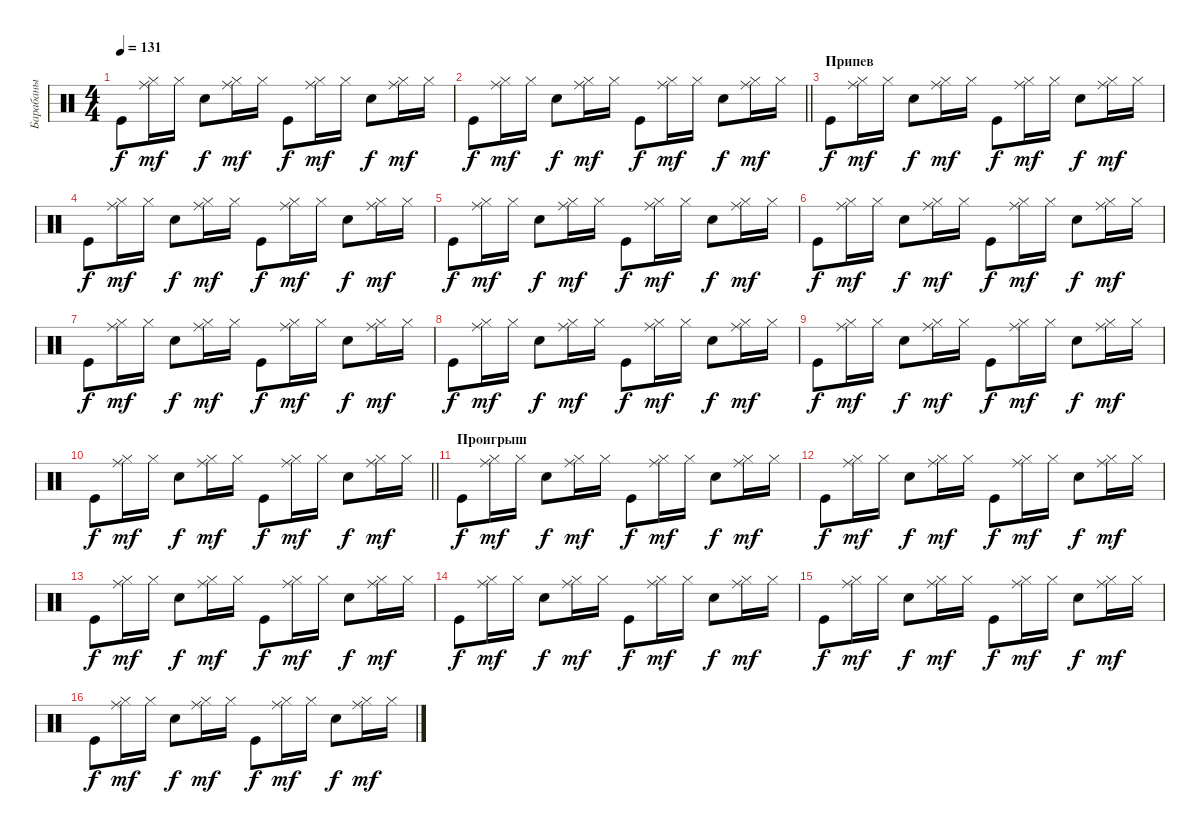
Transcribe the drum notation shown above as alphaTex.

\track ("Барабаны" "Барабаны") {instrument percussion}
\staff {score}
\articulation defaults
\ts (4 4)
\tempo 131
\clef neutral
\ks c "Kick (hit)".8{dy f}
("Hi-Hat (closed)" "Ride (middle)").16{dy mf} "Hi-Hat (closed)".16 "Snare (hit) 2".8{dy f} ("Hi-Hat (closed)" "Ride (middle)").16{dy mf} "Hi-Hat (closed)".16 "Kick (hit)".8{dy f} ("Hi-Hat (closed)" "Ride (middle)").16{dy mf} "Hi-Hat (closed)".16 "Snare (hit) 2".8{dy f} ("Hi-Hat (closed)" "Ride (middle)").16{dy mf} "Hi-Hat (closed)".16 |
\barLineRight lightlight "Kick (hit)".8{dy f}
("Hi-Hat (closed)" "Ride (middle)").16{dy mf} "Hi-Hat (closed)".16 "Snare (hit) 2".8{dy f} ("Hi-Hat (closed)" "Ride (middle)").16{dy mf} "Hi-Hat (closed)".16 "Kick (hit)".8{dy f} ("Hi-Hat (closed)" "Ride (middle)").16{dy mf} "Hi-Hat (closed)".16 "Snare (hit) 2".8{dy f} ("Hi-Hat (closed)" "Ride (middle)").16{dy mf} "Hi-Hat (closed)".16 |
\section ("" "Припев")
"Kick (hit)".8{dy f} ("Hi-Hat (closed)" "Ride (middle)").16{dy mf} "Hi-Hat (closed)".16 "Snare (hit) 2".8{dy f} ("Hi-Hat (closed)" "Ride (middle)").16{dy mf} "Hi-Hat (closed)".16 "Kick (hit)".8{dy f} ("Hi-Hat (closed)" "Ride (middle)").16{dy mf} "Hi-Hat (closed)".16 "Snare (hit) 2".8{dy f} ("Hi-Hat (closed)" "Ride (middle)").16{dy mf} "Hi-Hat (closed)".16 |
"Kick (hit)".8{dy f} ("Hi-Hat (closed)" "Ride (middle)").16{dy mf} "Hi-Hat (closed)".16 "Snare (hit) 2".8{dy f} ("Hi-Hat (closed)" "Ride (middle)").16{dy mf} "Hi-Hat (closed)".16 "Kick (hit)".8{dy f} ("Hi-Hat (closed)" "Ride (middle)").16{dy mf} "Hi-Hat (closed)".16 "Snare (hit) 2".8{dy f} ("Hi-Hat (closed)" "Ride (middle)").16{dy mf} "Hi-Hat (closed)".16 |
"Kick (hit)".8{dy f} ("Hi-Hat (closed)" "Ride (middle)").16{dy mf} "Hi-Hat (closed)".16 "Snare (hit) 2".8{dy f} ("Hi-Hat (closed)" "Ride (middle)").16{dy mf} "Hi-Hat (closed)".16 "Kick (hit)".8{dy f} ("Hi-Hat (closed)" "Ride (middle)").16{dy mf} "Hi-Hat (closed)".16 "Snare (hit) 2".8{dy f} ("Hi-Hat (closed)" "Ride (middle)").16{dy mf} "Hi-Hat (closed)".16 |
"Kick (hit)".8{dy f} ("Hi-Hat (closed)" "Ride (middle)").16{dy mf} "Hi-Hat (closed)".16 "Snare (hit) 2".8{dy f} ("Hi-Hat (closed)" "Ride (middle)").16{dy mf} "Hi-Hat (closed)".16 "Kick (hit)".8{dy f} ("Hi-Hat (closed)" "Ride (middle)").16{dy mf} "Hi-Hat (closed)".16 "Snare (hit) 2".8{dy f} ("Hi-Hat (closed)" "Ride (middle)").16{dy mf} "Hi-Hat (closed)".16 |
"Kick (hit)".8{dy f} ("Hi-Hat (closed)" "Ride (middle)").16{dy mf} "Hi-Hat (closed)".16 "Snare (hit) 2".8{dy f} ("Hi-Hat (closed)" "Ride (middle)").16{dy mf} "Hi-Hat (closed)".16 "Kick (hit)".8{dy f} ("Hi-Hat (closed)" "Ride (middle)").16{dy mf} "Hi-Hat (closed)".16 "Snare (hit) 2".8{dy f} ("Hi-Hat (closed)" "Ride (middle)").16{dy mf} "Hi-Hat (closed)".16 |
"Kick (hit)".8{dy f} ("Hi-Hat (closed)" "Ride (middle)").16{dy mf} "Hi-Hat (closed)".16 "Snare (hit) 2".8{dy f} ("Hi-Hat (closed)" "Ride (middle)").16{dy mf} "Hi-Hat (closed)".16 "Kick (hit)".8{dy f} ("Hi-Hat (closed)" "Ride (middle)").16{dy mf} "Hi-Hat (closed)".16 "Snare (hit) 2".8{dy f} ("Hi-Hat (closed)" "Ride (middle)").16{dy mf} "Hi-Hat (closed)".16 |
"Kick (hit)".8{dy f} ("Hi-Hat (closed)" "Ride (middle)").16{dy mf} "Hi-Hat (closed)".16 "Snare (hit) 2".8{dy f} ("Hi-Hat (closed)" "Ride (middle)").16{dy mf} "Hi-Hat (closed)".16 "Kick (hit)".8{dy f} ("Hi-Hat (closed)" "Ride (middle)").16{dy mf} "Hi-Hat (closed)".16 "Snare (hit) 2".8{dy f} ("Hi-Hat (closed)" "Ride (middle)").16{dy mf} "Hi-Hat (closed)".16 |
\barLineRight lightlight "Kick (hit)".8{dy f}
("Hi-Hat (closed)" "Ride (middle)").16{dy mf} "Hi-Hat (closed)".16 "Snare (hit) 2".8{dy f} ("Hi-Hat (closed)" "Ride (middle)").16{dy mf} "Hi-Hat (closed)".16 "Kick (hit)".8{dy f} ("Hi-Hat (closed)" "Ride (middle)").16{dy mf} "Hi-Hat (closed)".16 "Snare (hit) 2".8{dy f} ("Hi-Hat (closed)" "Ride (middle)").16{dy mf} "Hi-Hat (closed)".16 |
\section ("" "Проигрыш")
"Kick (hit)".8{dy f} ("Hi-Hat (closed)" "Ride (middle)").16{dy mf} "Hi-Hat (closed)".16 "Snare (hit) 2".8{dy f} ("Hi-Hat (closed)" "Ride (middle)").16{dy mf} "Hi-Hat (closed)".16 "Kick (hit)".8{dy f} ("Hi-Hat (closed)" "Ride (middle)").16{dy mf} "Hi-Hat (closed)".16 "Snare (hit) 2".8{dy f} ("Hi-Hat (closed)" "Ride (middle)").16{dy mf} "Hi-Hat (closed)".16 |
"Kick (hit)".8{dy f} ("Hi-Hat (closed)" "Ride (middle)").16{dy mf} "Hi-Hat (closed)".16 "Snare (hit) 2".8{dy f} ("Hi-Hat (closed)" "Ride (middle)").16{dy mf} "Hi-Hat (closed)".16 "Kick (hit)".8{dy f} ("Hi-Hat (closed)" "Ride (middle)").16{dy mf} "Hi-Hat (closed)".16 "Snare (hit) 2".8{dy f} ("Hi-Hat (closed)" "Ride (middle)").16{dy mf} "Hi-Hat (closed)".16 |
"Kick (hit)".8{dy f} ("Hi-Hat (closed)" "Ride (middle)").16{dy mf} "Hi-Hat (closed)".16 "Snare (hit) 2".8{dy f} ("Hi-Hat (closed)" "Ride (middle)").16{dy mf} "Hi-Hat (closed)".16 "Kick (hit)".8{dy f} ("Hi-Hat (closed)" "Ride (middle)").16{dy mf} "Hi-Hat (closed)".16 "Snare (hit) 2".8{dy f} ("Hi-Hat (closed)" "Ride (middle)").16{dy mf} "Hi-Hat (closed)".16 |
"Kick (hit)".8{dy f} ("Hi-Hat (closed)" "Ride (middle)").16{dy mf} "Hi-Hat (closed)".16 "Snare (hit) 2".8{dy f} ("Hi-Hat (closed)" "Ride (middle)").16{dy mf} "Hi-Hat (closed)".16 "Kick (hit)".8{dy f} ("Hi-Hat (closed)" "Ride (middle)").16{dy mf} "Hi-Hat (closed)".16 "Snare (hit) 2".8{dy f} ("Hi-Hat (closed)" "Ride (middle)").16{dy mf} "Hi-Hat (closed)".16 |
"Kick (hit)".8{dy f} ("Hi-Hat (closed)" "Ride (middle)").16{dy mf} "Hi-Hat (closed)".16 "Snare (hit) 2".8{dy f} ("Hi-Hat (closed)" "Ride (middle)").16{dy mf} "Hi-Hat (closed)".16 "Kick (hit)".8{dy f} ("Hi-Hat (closed)" "Ride (middle)").16{dy mf} "Hi-Hat (closed)".16 "Snare (hit) 2".8{dy f} ("Hi-Hat (closed)" "Ride (middle)").16{dy mf} "Hi-Hat (closed)".16 |
"Kick (hit)".8{dy f} ("Hi-Hat (closed)" "Ride (middle)").16{dy mf} "Hi-Hat (closed)".16 "Snare (hit) 2".8{dy f} ("Hi-Hat (closed)" "Ride (middle)").16{dy mf} "Hi-Hat (closed)".16 "Kick (hit)".8{dy f} ("Hi-Hat (closed)" "Ride (middle)").16{dy mf} "Hi-Hat (closed)".16 "Snare (hit) 2".8{dy f} ("Hi-Hat (closed)" "Ride (middle)").16{dy mf} "Hi-Hat (closed)".16
